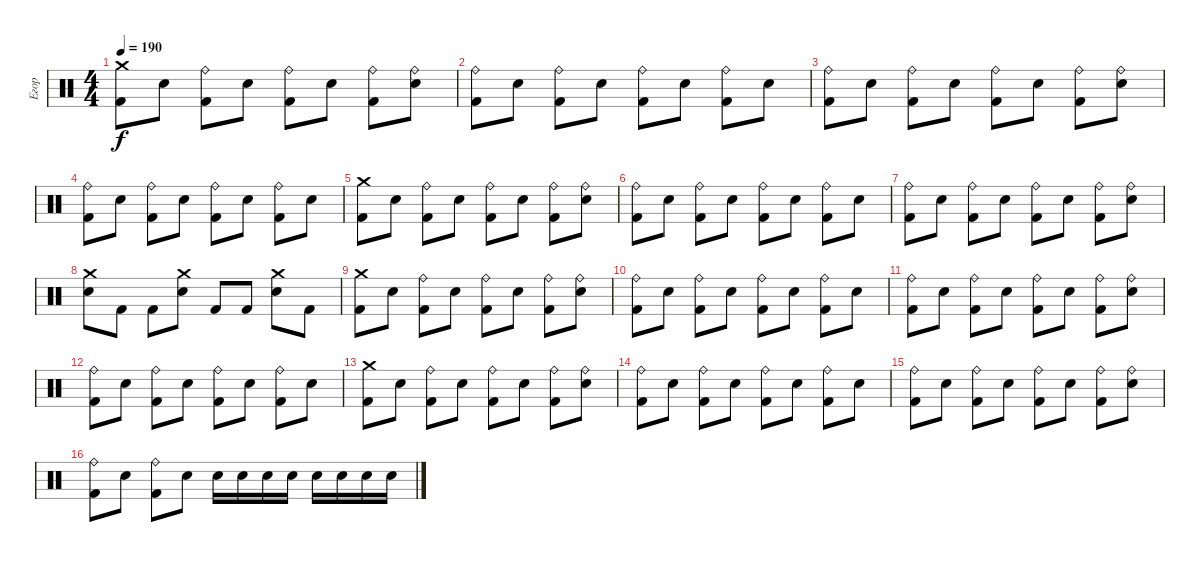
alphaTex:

\track ("Егор" "Егор") {instrument percussion}
\staff {score}
\articulation defaults
\ts (4 4)
\tempo 190
\clef neutral
\ks c
("Kick (hit) 2" "Crash medium (hit)").8{dy f} "Snare (hit) 2".8 ("Kick (hit) 2" "Ride (bell)").8 "Snare (hit) 2".8 ("Kick (hit) 2" "Ride (bell)").8 "Snare (hit) 2".8 ("Kick (hit) 2" "Ride (bell)").8 ("Snare (hit) 2" "Ride (bell)").8 |
("Kick (hit) 2" "Ride (bell)").8 "Snare (hit) 2".8 ("Kick (hit) 2" "Ride (bell)").8 "Snare (hit) 2".8 ("Kick (hit) 2" "Ride (bell)").8 "Snare (hit) 2".8 ("Kick (hit) 2" "Ride (bell)").8 "Snare (hit) 2".8 |
("Kick (hit) 2" "Ride (bell)").8 "Snare (hit) 2".8 ("Kick (hit) 2" "Ride (bell)").8 "Snare (hit) 2".8 ("Kick (hit) 2" "Ride (bell)").8 "Snare (hit) 2".8 ("Kick (hit) 2" "Ride (bell)").8 ("Snare (hit) 2" "Ride (bell)").8 |
("Kick (hit) 2" "Ride (bell)").8 "Snare (hit) 2".8 ("Kick (hit) 2" "Ride (bell)").8 "Snare (hit) 2".8 ("Kick (hit) 2" "Ride (bell)").8 "Snare (hit) 2".8 ("Kick (hit) 2" "Ride (bell)").8 "Snare (hit) 2".8 |
("Kick (hit) 2" "Crash medium (hit)").8 "Snare (hit) 2".8 ("Kick (hit) 2" "Ride (bell)").8 "Snare (hit) 2".8 ("Kick (hit) 2" "Ride (bell)").8 "Snare (hit) 2".8 ("Kick (hit) 2" "Ride (bell)").8 ("Snare (hit) 2" "Ride (bell)").8 |
("Kick (hit) 2" "Ride (bell)").8 "Snare (hit) 2".8 ("Kick (hit) 2" "Ride (bell)").8 "Snare (hit) 2".8 ("Kick (hit) 2" "Ride (bell)").8 "Snare (hit) 2".8 ("Kick (hit) 2" "Ride (bell)").8 "Snare (hit) 2".8 |
("Kick (hit) 2" "Ride (bell)").8 "Snare (hit) 2".8 ("Kick (hit) 2" "Ride (bell)").8 "Snare (hit) 2".8 ("Kick (hit) 2" "Ride (bell)").8 "Snare (hit) 2".8 ("Kick (hit) 2" "Ride (bell)").8 ("Snare (hit) 2" "Ride (bell)").8 |
("Crash medium (hit)" "Snare (hit) 2").8 "Kick (hit) 2".8 "Kick (hit) 2".8 ("Crash medium (hit)" "Snare (hit) 2").8 "Kick (hit) 2".8 "Kick (hit) 2".8 ("Crash medium (hit)" "Snare (hit) 2").8 "Kick (hit) 2".8 |
("Kick (hit) 2" "Crash medium (hit)").8 "Snare (hit) 2".8 ("Kick (hit) 2" "Ride (bell)").8 "Snare (hit) 2".8 ("Kick (hit) 2" "Ride (bell)").8 "Snare (hit) 2".8 ("Kick (hit) 2" "Ride (bell)").8 ("Snare (hit) 2" "Ride (bell)").8 |
("Kick (hit) 2" "Ride (bell)").8 "Snare (hit) 2".8 ("Kick (hit) 2" "Ride (bell)").8 "Snare (hit) 2".8 ("Kick (hit) 2" "Ride (bell)").8 "Snare (hit) 2".8 ("Kick (hit) 2" "Ride (bell)").8 "Snare (hit) 2".8 |
("Kick (hit) 2" "Ride (bell)").8 "Snare (hit) 2".8 ("Kick (hit) 2" "Ride (bell)").8 "Snare (hit) 2".8 ("Kick (hit) 2" "Ride (bell)").8 "Snare (hit) 2".8 ("Kick (hit) 2" "Ride (bell)").8 ("Snare (hit) 2" "Ride (bell)").8 |
("Kick (hit) 2" "Ride (bell)").8 "Snare (hit) 2".8 ("Kick (hit) 2" "Ride (bell)").8 "Snare (hit) 2".8 ("Kick (hit) 2" "Ride (bell)").8 "Snare (hit) 2".8 ("Kick (hit) 2" "Ride (bell)").8 "Snare (hit) 2".8 |
("Kick (hit) 2" "Crash medium (hit)").8 "Snare (hit) 2".8 ("Kick (hit) 2" "Ride (bell)").8 "Snare (hit) 2".8 ("Kick (hit) 2" "Ride (bell)").8 "Snare (hit) 2".8 ("Kick (hit) 2" "Ride (bell)").8 ("Snare (hit) 2" "Ride (bell)").8 |
("Kick (hit) 2" "Ride (bell)").8 "Snare (hit) 2".8 ("Kick (hit) 2" "Ride (bell)").8 "Snare (hit) 2".8 ("Kick (hit) 2" "Ride (bell)").8 "Snare (hit) 2".8 ("Kick (hit) 2" "Ride (bell)").8 "Snare (hit) 2".8 |
("Kick (hit) 2" "Ride (bell)").8 "Snare (hit) 2".8 ("Kick (hit) 2" "Ride (bell)").8 "Snare (hit) 2".8 ("Kick (hit) 2" "Ride (bell)").8 "Snare (hit) 2".8 ("Kick (hit) 2" "Ride (bell)").8 ("Snare (hit) 2" "Ride (bell)").8 |
("Ride (bell)" "Kick (hit) 2").8 "Snare (hit) 2".8 ("Ride (bell)" "Kick (hit) 2").8 "Snare (hit) 2".8 "Snare (hit) 2".16 "Snare (hit) 2".16 "Snare (hit) 2".16 "Snare (hit) 2".16 "Snare (hit) 2".16 "Snare (hit) 2".16 "Snare (hit) 2".16 "Snare (hit) 2".16
